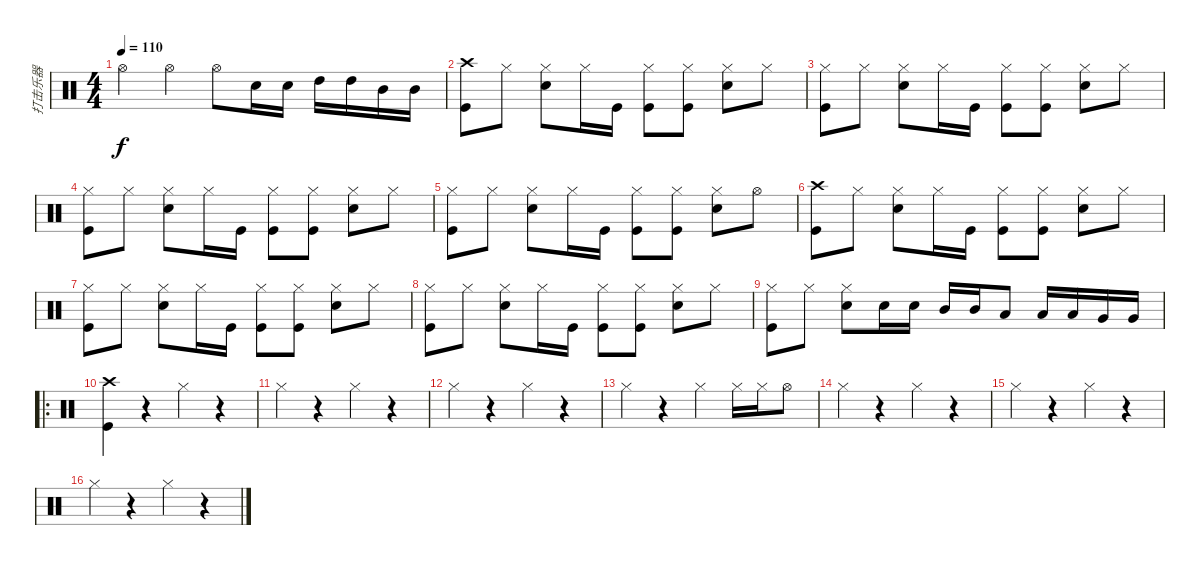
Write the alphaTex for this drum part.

\track ("打击乐器" "打击乐器") {instrument percussion}
\staff {score}
\articulation defaults
\ts (4 4)
\tempo 110
\clef neutral
\ks c "Hi-Hat (open)".4{dy f} "Hi-Hat (open)".4 "Hi-Hat (open)".8 "Snare (hit) 2".16 "Snare (hit) 2".16 "High Tom (hit)".16 "High Tom (hit)".16 "Mid Tom (hit)".16 "Mid Tom (hit)".16
|
("Crash high (hit)" "Kick (hit)").8 "Hi-Hat (closed)".8 ("Hi-Hat (closed)" "Snare (hit) 2").8 "Hi-Hat (closed)".16 "Kick (hit)".16 ("Hi-Hat (closed)" "Kick (hit)").8 ("Hi-Hat (closed)" "Kick (hit)").8 ("Hi-Hat (closed)" "Snare (hit) 2").8 "Hi-Hat (closed)".8 |
("Hi-Hat (closed)" "Kick (hit)").8 "Hi-Hat (closed)".8 ("Hi-Hat (closed)" "Snare (hit) 2").8 "Hi-Hat (closed)".16 "Kick (hit)".16 ("Hi-Hat (closed)" "Kick (hit)").8 ("Hi-Hat (closed)" "Kick (hit)").8 ("Hi-Hat (closed)" "Snare (hit) 2").8 "Hi-Hat (closed)".8 |
("Hi-Hat (closed)" "Kick (hit)").8 "Hi-Hat (closed)".8 ("Hi-Hat (closed)" "Snare (hit) 2").8 "Hi-Hat (closed)".16 "Kick (hit)".16 ("Hi-Hat (closed)" "Kick (hit)").8 ("Hi-Hat (closed)" "Kick (hit)").8 ("Hi-Hat (closed)" "Snare (hit) 2").8 "Hi-Hat (closed)".8 |
("Hi-Hat (closed)" "Kick (hit)").8 "Hi-Hat (closed)".8 ("Hi-Hat (closed)" "Snare (hit) 2").8 "Hi-Hat (closed)".16 "Kick (hit)".16 ("Hi-Hat (closed)" "Kick (hit)").8 ("Hi-Hat (closed)" "Kick (hit)").8 ("Hi-Hat (closed)" "Snare (hit) 2").8 "Hi-Hat (open)".8 |
("Crash high (hit)" "Kick (hit)").8 "Hi-Hat (closed)".8 ("Hi-Hat (closed)" "Snare (hit) 2").8 "Hi-Hat (closed)".16 "Kick (hit)".16 ("Hi-Hat (closed)" "Kick (hit)").8 ("Hi-Hat (closed)" "Kick (hit)").8 ("Hi-Hat (closed)" "Snare (hit) 2").8 "Hi-Hat (closed)".8 |
("Hi-Hat (closed)" "Kick (hit)").8 "Hi-Hat (closed)".8 ("Hi-Hat (closed)" "Snare (hit) 2").8 "Hi-Hat (closed)".16 "Kick (hit)".16 ("Hi-Hat (closed)" "Kick (hit)").8 ("Hi-Hat (closed)" "Kick (hit)").8 ("Hi-Hat (closed)" "Snare (hit) 2").8 "Hi-Hat (closed)".8 |
("Hi-Hat (closed)" "Kick (hit)").8 "Hi-Hat (closed)".8 ("Hi-Hat (closed)" "Snare (hit) 2").8 "Hi-Hat (closed)".16 "Kick (hit)".16 ("Hi-Hat (closed)" "Kick (hit)").8 ("Hi-Hat (closed)" "Kick (hit)").8 ("Hi-Hat (closed)" "Snare (hit) 2").8 "Hi-Hat (closed)".8 |
("Hi-Hat (closed)" "Kick (hit)").8 "Hi-Hat (closed)".8 ("Hi-Hat (closed)" "Snare (hit) 2").8 "Snare (hit) 2".16 "Snare (hit) 2".16 "Mid Tom (hit)".16 "Mid Tom (hit)".16 "Low Tom (hit)".8 "Low Tom (hit)".16 "Low Tom (hit)".16 "Very Low Tom (hit)".16 "Very Low Tom (hit)".16 |
\ro
("Crash high (hit)" "Kick (hit)").4 r.4 "Hi-Hat (closed)".4 r.4 |
"Hi-Hat (closed)".4 r.4 "Hi-Hat (closed)".4 r.4 |
"Hi-Hat (closed)".4 r.4 "Hi-Hat (closed)".4 r.4 |
"Hi-Hat (closed)".4 r.4 "Hi-Hat (closed)".4 "Hi-Hat (closed)".16 "Hi-Hat (closed)".16 "Hi-Hat (open)".8 |
"Hi-Hat (closed)".4 r.4 "Hi-Hat (closed)".4 r.4 |
"Hi-Hat (closed)".4 r.4 "Hi-Hat (closed)".4 r.4 |
"Hi-Hat (closed)".4 r.4 "Hi-Hat (closed)".4 r.4
